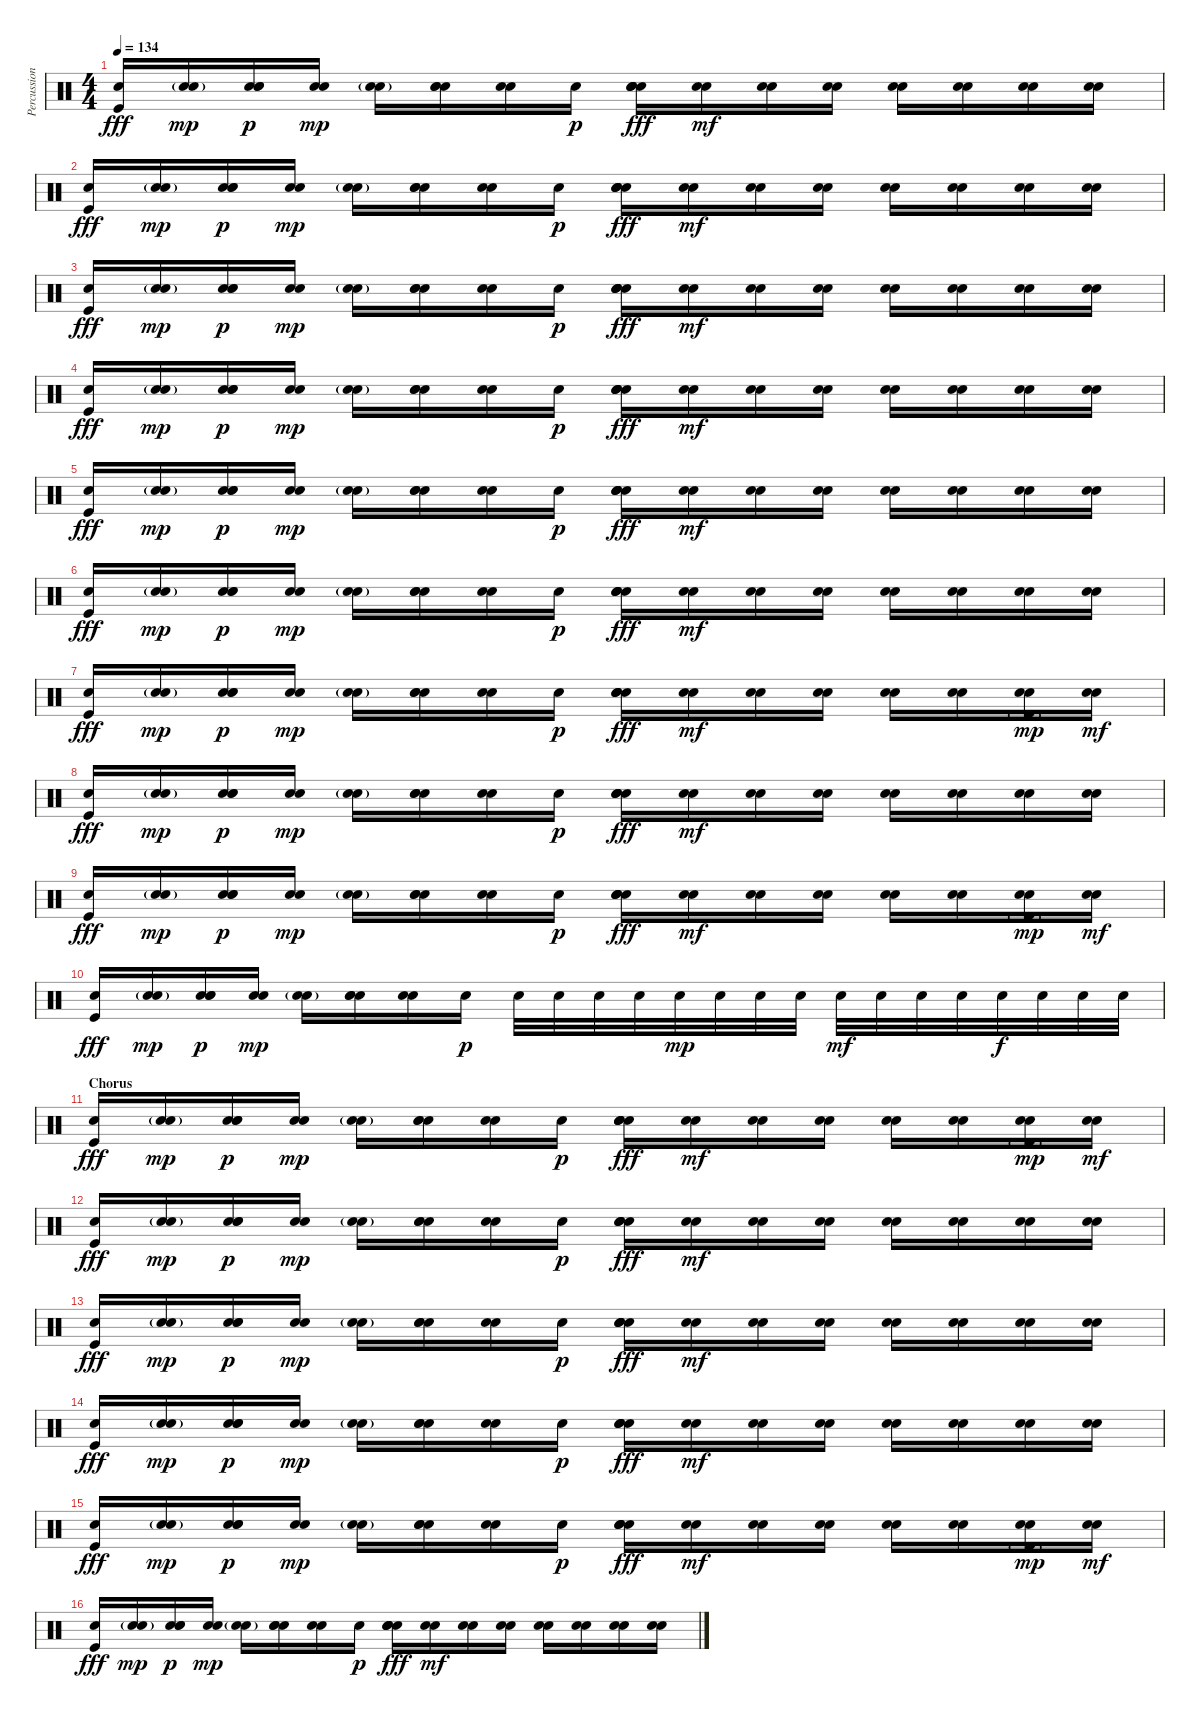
\track ("Percussion" "Percussion") {instrument percussion}
\staff {score}
\articulation defaults
\ts (4 4)
\tempo 134
\clef neutral
\ks c
("Electric Snare (hit)" "Kick (hit)").16{dy fff} ("Electric Snare (hit)" "Electric Snare (hit)"{g}).16{dy mp} ("Electric Snare (hit)" "Electric Snare (hit)" "Snare (hit) 2").16{dy p} ("Electric Snare (hit)" "Snare (hit) 2").16{dy mp} ("Electric Snare (hit)" "Electric Snare (hit)"{g}).16 ("Electric Snare (hit)" "Electric Snare (hit)" "Snare (hit) 2").16 ("Electric Snare (hit)" "Snare (hit) 2").16 "Electric Snare (hit)".16{dy p} ("Electric Snare (hit)" "Snare (hit) 2" "Snare (hit) 2" "Snare (hit) 2").16{dy fff} ("Electric Snare (hit)" "Snare (hit) 2").16{dy mf} ("Electric Snare (hit)" "Snare (hit) 2").16 ("Electric Snare (hit)" "Snare (hit) 2").16 ("Electric Snare (hit)" "Snare (hit) 2").16 ("Electric Snare (hit)" "Snare (hit) 2").16 ("Electric Snare (hit)" "Snare (hit) 2").16 ("Electric Snare (hit)" "Snare (hit) 2").16 |
("Electric Snare (hit)" "Kick (hit)").16{dy fff} ("Electric Snare (hit)" "Electric Snare (hit)"{g}).16{dy mp} ("Electric Snare (hit)" "Electric Snare (hit)" "Snare (hit) 2").16{dy p} ("Electric Snare (hit)" "Snare (hit) 2").16{dy mp} ("Electric Snare (hit)" "Electric Snare (hit)"{g}).16 ("Electric Snare (hit)" "Electric Snare (hit)" "Snare (hit) 2").16 ("Electric Snare (hit)" "Snare (hit) 2").16 "Electric Snare (hit)".16{dy p} ("Electric Snare (hit)" "Snare (hit) 2" "Snare (hit) 2" "Snare (hit) 2").16{dy fff} ("Electric Snare (hit)" "Snare (hit) 2").16{dy mf} ("Electric Snare (hit)" "Snare (hit) 2").16 ("Electric Snare (hit)" "Snare (hit) 2").16 ("Electric Snare (hit)" "Snare (hit) 2").16 ("Electric Snare (hit)" "Snare (hit) 2").16 ("Electric Snare (hit)" "Snare (hit) 2").16 ("Electric Snare (hit)" "Snare (hit) 2").16 |
("Electric Snare (hit)" "Kick (hit)").16{dy fff} ("Electric Snare (hit)" "Electric Snare (hit)"{g}).16{dy mp} ("Electric Snare (hit)" "Electric Snare (hit)" "Snare (hit) 2").16{dy p} ("Electric Snare (hit)" "Snare (hit) 2").16{dy mp} ("Electric Snare (hit)" "Electric Snare (hit)"{g}).16 ("Electric Snare (hit)" "Electric Snare (hit)" "Snare (hit) 2").16 ("Electric Snare (hit)" "Snare (hit) 2").16 "Electric Snare (hit)".16{dy p} ("Electric Snare (hit)" "Snare (hit) 2" "Snare (hit) 2" "Snare (hit) 2").16{dy fff} ("Electric Snare (hit)" "Snare (hit) 2").16{dy mf} ("Electric Snare (hit)" "Snare (hit) 2").16 ("Electric Snare (hit)" "Snare (hit) 2").16 ("Electric Snare (hit)" "Snare (hit) 2").16 ("Electric Snare (hit)" "Snare (hit) 2").16 ("Electric Snare (hit)" "Snare (hit) 2").16 ("Electric Snare (hit)" "Snare (hit) 2").16 |
("Electric Snare (hit)" "Kick (hit)").16{dy fff} ("Electric Snare (hit)" "Electric Snare (hit)"{g}).16{dy mp} ("Electric Snare (hit)" "Electric Snare (hit)" "Snare (hit) 2").16{dy p} ("Electric Snare (hit)" "Snare (hit) 2").16{dy mp} ("Electric Snare (hit)" "Electric Snare (hit)"{g}).16 ("Electric Snare (hit)" "Electric Snare (hit)" "Snare (hit) 2").16 ("Electric Snare (hit)" "Snare (hit) 2").16 "Electric Snare (hit)".16{dy p} ("Electric Snare (hit)" "Snare (hit) 2" "Snare (hit) 2" "Snare (hit) 2").16{dy fff} ("Electric Snare (hit)" "Snare (hit) 2").16{dy mf} ("Electric Snare (hit)" "Snare (hit) 2").16 ("Electric Snare (hit)" "Snare (hit) 2").16 ("Electric Snare (hit)" "Snare (hit) 2").16 ("Electric Snare (hit)" "Snare (hit) 2").16 ("Electric Snare (hit)" "Snare (hit) 2").16 ("Electric Snare (hit)" "Snare (hit) 2").16 |
("Electric Snare (hit)" "Kick (hit)").16{dy fff} ("Electric Snare (hit)" "Electric Snare (hit)"{g}).16{dy mp} ("Electric Snare (hit)" "Electric Snare (hit)" "Snare (hit) 2").16{dy p} ("Electric Snare (hit)" "Snare (hit) 2").16{dy mp} ("Electric Snare (hit)" "Electric Snare (hit)"{g}).16 ("Electric Snare (hit)" "Electric Snare (hit)" "Snare (hit) 2").16 ("Electric Snare (hit)" "Snare (hit) 2").16 "Electric Snare (hit)".16{dy p} ("Electric Snare (hit)" "Snare (hit) 2" "Snare (hit) 2" "Snare (hit) 2").16{dy fff} ("Electric Snare (hit)" "Snare (hit) 2").16{dy mf} ("Electric Snare (hit)" "Snare (hit) 2").16 ("Electric Snare (hit)" "Snare (hit) 2").16 ("Electric Snare (hit)" "Snare (hit) 2").16 ("Electric Snare (hit)" "Snare (hit) 2").16 ("Electric Snare (hit)" "Snare (hit) 2").16 ("Electric Snare (hit)" "Snare (hit) 2").16 |
("Electric Snare (hit)" "Kick (hit)").16{dy fff} ("Electric Snare (hit)" "Electric Snare (hit)"{g}).16{dy mp} ("Electric Snare (hit)" "Electric Snare (hit)" "Snare (hit) 2").16{dy p} ("Electric Snare (hit)" "Snare (hit) 2").16{dy mp} ("Electric Snare (hit)" "Electric Snare (hit)"{g}).16 ("Electric Snare (hit)" "Electric Snare (hit)" "Snare (hit) 2").16 ("Electric Snare (hit)" "Snare (hit) 2").16 "Electric Snare (hit)".16{dy p} ("Electric Snare (hit)" "Snare (hit) 2" "Snare (hit) 2" "Snare (hit) 2").16{dy fff} ("Electric Snare (hit)" "Snare (hit) 2").16{dy mf} ("Electric Snare (hit)" "Snare (hit) 2").16 ("Electric Snare (hit)" "Snare (hit) 2").16 ("Electric Snare (hit)" "Snare (hit) 2").16 ("Electric Snare (hit)" "Snare (hit) 2").16 ("Electric Snare (hit)" "Snare (hit) 2").16 ("Electric Snare (hit)" "Snare (hit) 2").16 |
("Electric Snare (hit)" "Kick (hit)").16{dy fff} ("Electric Snare (hit)" "Electric Snare (hit)"{g}).16{dy mp} ("Electric Snare (hit)" "Electric Snare (hit)" "Snare (hit) 2").16{dy p} ("Electric Snare (hit)" "Snare (hit) 2").16{dy mp} ("Electric Snare (hit)" "Electric Snare (hit)"{g}).16 ("Electric Snare (hit)" "Electric Snare (hit)" "Snare (hit) 2").16 ("Electric Snare (hit)" "Snare (hit) 2").16 "Electric Snare (hit)".16{dy p} ("Electric Snare (hit)" "Snare (hit) 2" "Snare (hit) 2" "Snare (hit) 2").16{dy fff} ("Electric Snare (hit)" "Snare (hit) 2").16{dy mf} ("Electric Snare (hit)" "Snare (hit) 2").16 ("Electric Snare (hit)" "Snare (hit) 2").16 ("Electric Snare (hit)" "Snare (hit) 2").16 ("Electric Snare (hit)" "Snare (hit) 2").16 ("Electric Snare (hit)" "Snare (hit) 2" "Kick (hit)"{g}).16{dy mp} ("Electric Snare (hit)" "Snare (hit) 2").16{dy mf} |
("Electric Snare (hit)" "Kick (hit)").16{dy fff} ("Electric Snare (hit)" "Electric Snare (hit)"{g}).16{dy mp} ("Electric Snare (hit)" "Electric Snare (hit)" "Snare (hit) 2").16{dy p} ("Electric Snare (hit)" "Snare (hit) 2").16{dy mp} ("Electric Snare (hit)" "Electric Snare (hit)"{g}).16 ("Electric Snare (hit)" "Electric Snare (hit)" "Snare (hit) 2").16 ("Electric Snare (hit)" "Snare (hit) 2").16 "Electric Snare (hit)".16{dy p} ("Electric Snare (hit)" "Snare (hit) 2" "Snare (hit) 2" "Snare (hit) 2").16{dy fff} ("Electric Snare (hit)" "Snare (hit) 2").16{dy mf} ("Electric Snare (hit)" "Snare (hit) 2").16 ("Electric Snare (hit)" "Snare (hit) 2").16 ("Electric Snare (hit)" "Snare (hit) 2").16 ("Electric Snare (hit)" "Snare (hit) 2").16 ("Electric Snare (hit)" "Snare (hit) 2").16 ("Electric Snare (hit)" "Snare (hit) 2").16 |
("Electric Snare (hit)" "Kick (hit)").16{dy fff} ("Electric Snare (hit)" "Electric Snare (hit)"{g}).16{dy mp} ("Electric Snare (hit)" "Electric Snare (hit)" "Snare (hit) 2").16{dy p} ("Electric Snare (hit)" "Snare (hit) 2").16{dy mp} ("Electric Snare (hit)" "Electric Snare (hit)"{g}).16 ("Electric Snare (hit)" "Electric Snare (hit)" "Snare (hit) 2").16 ("Electric Snare (hit)" "Snare (hit) 2").16 "Electric Snare (hit)".16{dy p} ("Electric Snare (hit)" "Snare (hit) 2" "Snare (hit) 2" "Snare (hit) 2").16{dy fff} ("Electric Snare (hit)" "Snare (hit) 2").16{dy mf} ("Electric Snare (hit)" "Snare (hit) 2").16 ("Electric Snare (hit)" "Snare (hit) 2").16 ("Electric Snare (hit)" "Snare (hit) 2").16 ("Electric Snare (hit)" "Snare (hit) 2").16 ("Electric Snare (hit)" "Snare (hit) 2" "Kick (hit)"{g}).16{dy mp} ("Electric Snare (hit)" "Snare (hit) 2").16{dy mf} |
("Electric Snare (hit)" "Kick (hit)").16{dy fff} ("Electric Snare (hit)" "Electric Snare (hit)"{g}).16{dy mp} ("Electric Snare (hit)" "Electric Snare (hit)" "Snare (hit) 2").16{dy p} ("Electric Snare (hit)" "Snare (hit) 2").16{dy mp} ("Electric Snare (hit)" "Electric Snare (hit)"{g}).16 ("Electric Snare (hit)" "Electric Snare (hit)" "Snare (hit) 2").16 ("Electric Snare (hit)" "Snare (hit) 2").16 "Electric Snare (hit)".16{dy p} "Snare (hit) 2".32 "Snare (hit) 2".32 "Snare (hit) 2".32 "Snare (hit) 2".32 "Snare (hit) 2".32{dy mp} "Snare (hit) 2".32 "Snare (hit) 2".32 "Snare (hit) 2".32 "Snare (hit) 2".32{dy mf} "Snare (hit) 2".32 "Snare (hit) 2".32 "Snare (hit) 2".32 "Snare (hit) 2".32{dy f} "Snare (hit) 2".32 "Snare (hit) 2".32 "Snare (hit) 2".32 |
\section ("" "Chorus")
("Electric Snare (hit)" "Kick (hit)").16{dy fff} ("Electric Snare (hit)" "Electric Snare (hit)"{g}).16{dy mp} ("Electric Snare (hit)" "Electric Snare (hit)" "Snare (hit) 2").16{dy p} ("Electric Snare (hit)" "Snare (hit) 2").16{dy mp} ("Electric Snare (hit)" "Electric Snare (hit)"{g}).16 ("Electric Snare (hit)" "Electric Snare (hit)" "Snare (hit) 2").16 ("Electric Snare (hit)" "Snare (hit) 2").16 "Electric Snare (hit)".16{dy p} ("Electric Snare (hit)" "Snare (hit) 2" "Snare (hit) 2" "Snare (hit) 2").16{dy fff} ("Electric Snare (hit)" "Snare (hit) 2").16{dy mf} ("Electric Snare (hit)" "Snare (hit) 2").16 ("Electric Snare (hit)" "Snare (hit) 2").16 ("Electric Snare (hit)" "Snare (hit) 2").16 ("Electric Snare (hit)" "Snare (hit) 2").16 ("Electric Snare (hit)" "Snare (hit) 2" "Kick (hit)"{g}).16{dy mp} ("Electric Snare (hit)" "Snare (hit) 2").16{dy mf} |
("Electric Snare (hit)" "Kick (hit)").16{dy fff} ("Electric Snare (hit)" "Electric Snare (hit)"{g}).16{dy mp} ("Electric Snare (hit)" "Electric Snare (hit)" "Snare (hit) 2").16{dy p} ("Electric Snare (hit)" "Snare (hit) 2").16{dy mp} ("Electric Snare (hit)" "Electric Snare (hit)"{g}).16 ("Electric Snare (hit)" "Electric Snare (hit)" "Snare (hit) 2").16 ("Electric Snare (hit)" "Snare (hit) 2").16 "Electric Snare (hit)".16{dy p} ("Electric Snare (hit)" "Snare (hit) 2" "Snare (hit) 2" "Snare (hit) 2").16{dy fff} ("Electric Snare (hit)" "Snare (hit) 2").16{dy mf} ("Electric Snare (hit)" "Snare (hit) 2").16 ("Electric Snare (hit)" "Snare (hit) 2").16 ("Electric Snare (hit)" "Snare (hit) 2").16 ("Electric Snare (hit)" "Snare (hit) 2").16 ("Electric Snare (hit)" "Snare (hit) 2").16 ("Electric Snare (hit)" "Snare (hit) 2").16 |
("Electric Snare (hit)" "Kick (hit)").16{dy fff} ("Electric Snare (hit)" "Electric Snare (hit)"{g}).16{dy mp} ("Electric Snare (hit)" "Electric Snare (hit)" "Snare (hit) 2").16{dy p} ("Electric Snare (hit)" "Snare (hit) 2").16{dy mp} ("Electric Snare (hit)" "Electric Snare (hit)"{g}).16 ("Electric Snare (hit)" "Electric Snare (hit)" "Snare (hit) 2").16 ("Electric Snare (hit)" "Snare (hit) 2").16 "Electric Snare (hit)".16{dy p} ("Electric Snare (hit)" "Snare (hit) 2" "Snare (hit) 2" "Snare (hit) 2").16{dy fff} ("Electric Snare (hit)" "Snare (hit) 2").16{dy mf} ("Electric Snare (hit)" "Snare (hit) 2").16 ("Electric Snare (hit)" "Snare (hit) 2").16 ("Electric Snare (hit)" "Snare (hit) 2").16 ("Electric Snare (hit)" "Snare (hit) 2").16 ("Electric Snare (hit)" "Snare (hit) 2").16 ("Electric Snare (hit)" "Snare (hit) 2").16 |
("Electric Snare (hit)" "Kick (hit)").16{dy fff} ("Electric Snare (hit)" "Electric Snare (hit)"{g}).16{dy mp} ("Electric Snare (hit)" "Electric Snare (hit)" "Snare (hit) 2").16{dy p} ("Electric Snare (hit)" "Snare (hit) 2").16{dy mp} ("Electric Snare (hit)" "Electric Snare (hit)"{g}).16 ("Electric Snare (hit)" "Electric Snare (hit)" "Snare (hit) 2").16 ("Electric Snare (hit)" "Snare (hit) 2").16 "Electric Snare (hit)".16{dy p} ("Electric Snare (hit)" "Snare (hit) 2" "Snare (hit) 2" "Snare (hit) 2").16{dy fff} ("Electric Snare (hit)" "Snare (hit) 2").16{dy mf} ("Electric Snare (hit)" "Snare (hit) 2").16 ("Electric Snare (hit)" "Snare (hit) 2").16 ("Electric Snare (hit)" "Snare (hit) 2").16 ("Electric Snare (hit)" "Snare (hit) 2").16 ("Electric Snare (hit)" "Snare (hit) 2").16 ("Electric Snare (hit)" "Snare (hit) 2").16 |
("Electric Snare (hit)" "Kick (hit)").16{dy fff} ("Electric Snare (hit)" "Electric Snare (hit)"{g}).16{dy mp} ("Electric Snare (hit)" "Electric Snare (hit)" "Snare (hit) 2").16{dy p} ("Electric Snare (hit)" "Snare (hit) 2").16{dy mp} ("Electric Snare (hit)" "Electric Snare (hit)"{g}).16 ("Electric Snare (hit)" "Electric Snare (hit)" "Snare (hit) 2").16 ("Electric Snare (hit)" "Snare (hit) 2").16 "Electric Snare (hit)".16{dy p} ("Electric Snare (hit)" "Snare (hit) 2" "Snare (hit) 2" "Snare (hit) 2").16{dy fff} ("Electric Snare (hit)" "Snare (hit) 2").16{dy mf} ("Electric Snare (hit)" "Snare (hit) 2").16 ("Electric Snare (hit)" "Snare (hit) 2").16 ("Electric Snare (hit)" "Snare (hit) 2").16 ("Electric Snare (hit)" "Snare (hit) 2").16 ("Electric Snare (hit)" "Snare (hit) 2" "Kick (hit)"{g}).16{dy mp} ("Electric Snare (hit)" "Snare (hit) 2").16{dy mf} |
("Electric Snare (hit)" "Kick (hit)").16{dy fff} ("Electric Snare (hit)" "Electric Snare (hit)"{g}).16{dy mp} ("Electric Snare (hit)" "Electric Snare (hit)" "Snare (hit) 2").16{dy p} ("Electric Snare (hit)" "Snare (hit) 2").16{dy mp} ("Electric Snare (hit)" "Electric Snare (hit)"{g}).16 ("Electric Snare (hit)" "Electric Snare (hit)" "Snare (hit) 2").16 ("Electric Snare (hit)" "Snare (hit) 2").16 "Electric Snare (hit)".16{dy p} ("Electric Snare (hit)" "Snare (hit) 2" "Snare (hit) 2" "Snare (hit) 2").16{dy fff} ("Electric Snare (hit)" "Snare (hit) 2").16{dy mf} ("Electric Snare (hit)" "Snare (hit) 2").16 ("Electric Snare (hit)" "Snare (hit) 2").16 ("Electric Snare (hit)" "Snare (hit) 2").16 ("Electric Snare (hit)" "Snare (hit) 2").16 ("Electric Snare (hit)" "Snare (hit) 2").16 ("Electric Snare (hit)" "Snare (hit) 2").16
